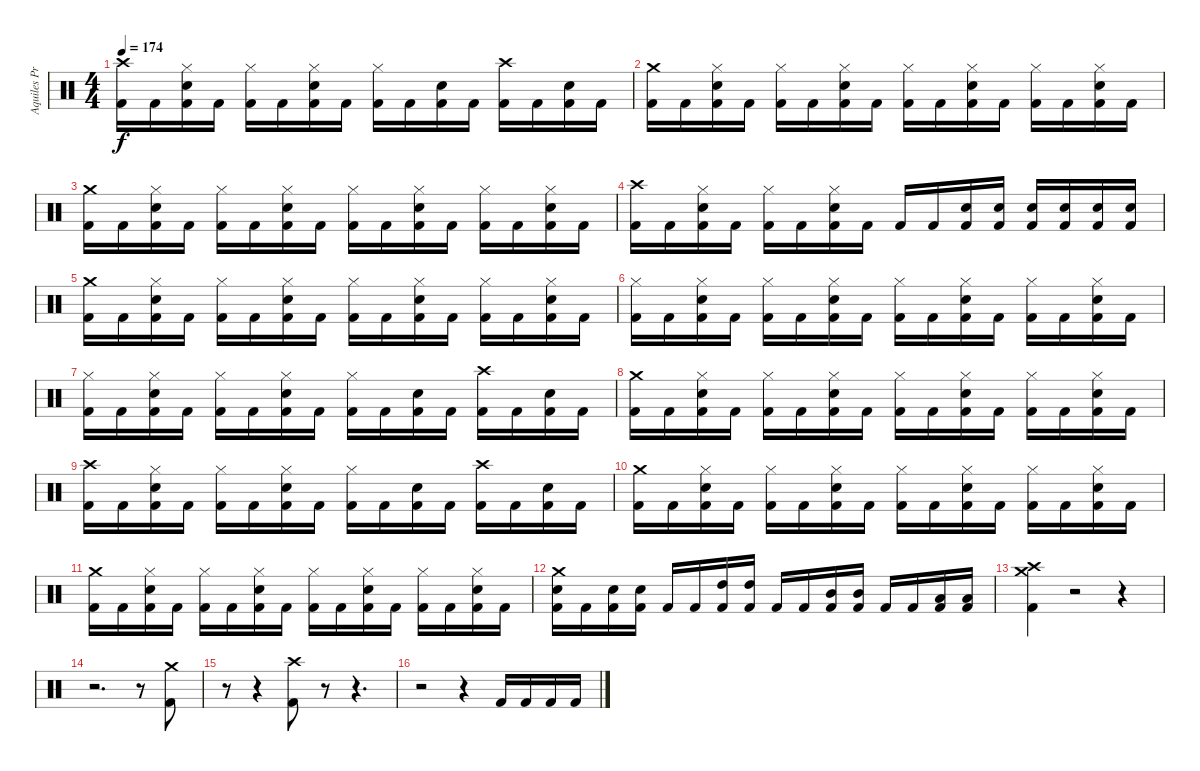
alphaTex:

\track ("Aquiles Priester" "Aquiles Pr") {instrument percussion}
\staff {score}
\articulation defaults
\ts (4 4)
\tempo 174
\clef neutral
\ks c
("Crash high (hit)" "Kick (hit) 2").16{dy f} "Kick (hit) 2".16 ("Hi-Hat (closed)" "Electric Snare (hit)" "Kick (hit) 2").16 "Kick (hit) 2".16 ("Hi-Hat (closed)" "Kick (hit) 2").16 "Kick (hit) 2".16 ("Hi-Hat (closed)" "Electric Snare (hit)" "Kick (hit) 2").16 "Kick (hit) 2".16 ("Hi-Hat (closed)" "Kick (hit) 2").16 "Kick (hit) 2".16 ("Electric Snare (hit)" "Kick (hit) 2").16 "Kick (hit) 2".16 ("Crash high (hit)" "Kick (hit) 2").16 "Kick (hit) 2".16 ("Electric Snare (hit)" "Kick (hit) 2").16 "Kick (hit) 2".16 |
("Crash medium (hit)" "Kick (hit) 2").16 "Kick (hit) 2".16 ("Hi-Hat (closed)" "Electric Snare (hit)" "Kick (hit) 2").16 "Kick (hit) 2".16 ("Hi-Hat (closed)" "Kick (hit) 2").16 "Kick (hit) 2".16 ("Hi-Hat (closed)" "Electric Snare (hit)" "Kick (hit) 2").16 "Kick (hit) 2".16 ("Hi-Hat (closed)" "Kick (hit) 2").16 "Kick (hit) 2".16 ("Hi-Hat (closed)" "Electric Snare (hit)" "Kick (hit) 2").16 "Kick (hit) 2".16 ("Hi-Hat (closed)" "Kick (hit) 2").16 "Kick (hit) 2".16 ("Hi-Hat (closed)" "Electric Snare (hit)" "Kick (hit) 2").16 "Kick (hit) 2".16 |
("Crash medium (hit)" "Kick (hit) 2").16 "Kick (hit) 2".16 ("Hi-Hat (closed)" "Electric Snare (hit)" "Kick (hit) 2").16 "Kick (hit) 2".16 ("Hi-Hat (closed)" "Kick (hit) 2").16 "Kick (hit) 2".16 ("Hi-Hat (closed)" "Electric Snare (hit)" "Kick (hit) 2").16 "Kick (hit) 2".16 ("Hi-Hat (closed)" "Kick (hit) 2").16 "Kick (hit) 2".16 ("Hi-Hat (closed)" "Electric Snare (hit)" "Kick (hit) 2").16 "Kick (hit) 2".16 ("Hi-Hat (closed)" "Kick (hit) 2").16 "Kick (hit) 2".16 ("Hi-Hat (closed)" "Electric Snare (hit)" "Kick (hit) 2").16 "Kick (hit) 2".16 |
("Crash high (hit)" "Kick (hit) 2").16 "Kick (hit) 2".16 ("Hi-Hat (closed)" "Electric Snare (hit)" "Kick (hit) 2").16 "Kick (hit) 2".16 ("Hi-Hat (closed)" "Kick (hit) 2").16 "Kick (hit) 2".16 ("Hi-Hat (closed)" "Electric Snare (hit)" "Kick (hit) 2").16 "Kick (hit) 2".16 "Kick (hit) 2".16 "Kick (hit) 2".16 ("Electric Snare (hit)" "Kick (hit) 2").16 ("Electric Snare (hit)" "Kick (hit) 2").16 ("Electric Snare (hit)" "Kick (hit) 2").16 ("Electric Snare (hit)" "Kick (hit) 2").16 ("Electric Snare (hit)" "Kick (hit) 2").16 ("Electric Snare (hit)" "Kick (hit) 2").16 |
("Crash medium (hit)" "Kick (hit) 2").16 "Kick (hit) 2".16 ("Hi-Hat (closed)" "Electric Snare (hit)" "Kick (hit) 2").16 "Kick (hit) 2".16 ("Hi-Hat (closed)" "Kick (hit) 2").16 "Kick (hit) 2".16 ("Hi-Hat (closed)" "Electric Snare (hit)" "Kick (hit) 2").16 "Kick (hit) 2".16 ("Hi-Hat (closed)" "Kick (hit) 2").16 "Kick (hit) 2".16 ("Hi-Hat (closed)" "Electric Snare (hit)" "Kick (hit) 2").16 "Kick (hit) 2".16 ("Hi-Hat (closed)" "Kick (hit) 2").16 "Kick (hit) 2".16 ("Hi-Hat (closed)" "Electric Snare (hit)" "Kick (hit) 2").16 "Kick (hit) 2".16 |
("Hi-Hat (closed)" "Kick (hit) 2").16 "Kick (hit) 2".16 ("Hi-Hat (closed)" "Electric Snare (hit)" "Kick (hit) 2").16 "Kick (hit) 2".16 ("Hi-Hat (closed)" "Kick (hit) 2").16 "Kick (hit) 2".16 ("Hi-Hat (closed)" "Electric Snare (hit)" "Kick (hit) 2").16 "Kick (hit) 2".16 ("Hi-Hat (closed)" "Kick (hit) 2").16 "Kick (hit) 2".16 ("Hi-Hat (closed)" "Electric Snare (hit)" "Kick (hit) 2").16 "Kick (hit) 2".16 ("Hi-Hat (closed)" "Kick (hit) 2").16 "Kick (hit) 2".16 ("Hi-Hat (closed)" "Electric Snare (hit)" "Kick (hit) 2").16 "Kick (hit) 2".16 |
("Hi-Hat (closed)" "Kick (hit) 2").16 "Kick (hit) 2".16 ("Hi-Hat (closed)" "Electric Snare (hit)" "Kick (hit) 2").16 "Kick (hit) 2".16 ("Hi-Hat (closed)" "Kick (hit) 2").16 "Kick (hit) 2".16 ("Hi-Hat (closed)" "Electric Snare (hit)" "Kick (hit) 2").16 "Kick (hit) 2".16 ("Hi-Hat (closed)" "Kick (hit) 2").16 "Kick (hit) 2".16 ("Electric Snare (hit)" "Kick (hit) 2").16 "Kick (hit) 2".16 ("Crash high (hit)" "Kick (hit) 2").16 "Kick (hit) 2".16 ("Electric Snare (hit)" "Kick (hit) 2").16 "Kick (hit) 2".16 |
("Crash medium (hit)" "Kick (hit) 2").16 "Kick (hit) 2".16 ("Hi-Hat (closed)" "Electric Snare (hit)" "Kick (hit) 2").16 "Kick (hit) 2".16 ("Hi-Hat (closed)" "Kick (hit) 2").16 "Kick (hit) 2".16 ("Hi-Hat (closed)" "Electric Snare (hit)" "Kick (hit) 2").16 "Kick (hit) 2".16 ("Hi-Hat (closed)" "Kick (hit) 2").16 "Kick (hit) 2".16 ("Hi-Hat (closed)" "Electric Snare (hit)" "Kick (hit) 2").16 "Kick (hit) 2".16 ("Hi-Hat (closed)" "Kick (hit) 2").16 "Kick (hit) 2".16 ("Hi-Hat (closed)" "Electric Snare (hit)" "Kick (hit) 2").16 "Kick (hit) 2".16 |
("Crash high (hit)" "Kick (hit) 2").16 "Kick (hit) 2".16 ("Hi-Hat (closed)" "Electric Snare (hit)" "Kick (hit) 2").16 "Kick (hit) 2".16 ("Hi-Hat (closed)" "Kick (hit) 2").16 "Kick (hit) 2".16 ("Hi-Hat (closed)" "Electric Snare (hit)" "Kick (hit) 2").16 "Kick (hit) 2".16 ("Hi-Hat (closed)" "Kick (hit) 2").16 "Kick (hit) 2".16 ("Electric Snare (hit)" "Kick (hit) 2").16 "Kick (hit) 2".16 ("Crash high (hit)" "Kick (hit) 2").16 "Kick (hit) 2".16 ("Electric Snare (hit)" "Kick (hit) 2").16 "Kick (hit) 2".16 |
("Crash medium (hit)" "Kick (hit) 2").16 "Kick (hit) 2".16 ("Hi-Hat (closed)" "Electric Snare (hit)" "Kick (hit) 2").16 "Kick (hit) 2".16 ("Hi-Hat (closed)" "Kick (hit) 2").16 "Kick (hit) 2".16 ("Hi-Hat (closed)" "Electric Snare (hit)" "Kick (hit) 2").16 "Kick (hit) 2".16 ("Hi-Hat (closed)" "Kick (hit) 2").16 "Kick (hit) 2".16 ("Hi-Hat (closed)" "Electric Snare (hit)" "Kick (hit) 2").16 "Kick (hit) 2".16 ("Hi-Hat (closed)" "Kick (hit) 2").16 "Kick (hit) 2".16 ("Hi-Hat (closed)" "Electric Snare (hit)" "Kick (hit) 2").16 "Kick (hit) 2".16 |
("Crash medium (hit)" "Kick (hit) 2").16 "Kick (hit) 2".16 ("Hi-Hat (closed)" "Electric Snare (hit)" "Kick (hit) 2").16 "Kick (hit) 2".16 ("Hi-Hat (closed)" "Kick (hit) 2").16 "Kick (hit) 2".16 ("Hi-Hat (closed)" "Electric Snare (hit)" "Kick (hit) 2").16 "Kick (hit) 2".16 ("Hi-Hat (closed)" "Kick (hit) 2").16 "Kick (hit) 2".16 ("Hi-Hat (closed)" "Electric Snare (hit)" "Kick (hit) 2").16 "Kick (hit) 2".16 ("Hi-Hat (closed)" "Kick (hit) 2").16 "Kick (hit) 2".16 ("Hi-Hat (closed)" "Electric Snare (hit)" "Kick (hit) 2").16 "Kick (hit) 2".16 |
("Crash medium (hit)" "Electric Snare (hit)" "Kick (hit) 2").16 "Kick (hit) 2".16 ("Electric Snare (hit)" "Kick (hit) 2").16 ("Electric Snare (hit)" "Kick (hit) 2").16 "Kick (hit) 2".16 "Kick (hit) 2".16 ("High Tom (hit)" "Kick (hit) 2").16 ("High Tom (hit)" "Kick (hit) 2").16 "Kick (hit) 2".16 "Kick (hit) 2".16 ("Mid Tom (hit)" "Kick (hit) 2").16 ("Mid Tom (hit)" "Kick (hit) 2").16 "Kick (hit) 2".16 "Kick (hit) 2".16 ("Low Tom (hit)" "Kick (hit) 2").16 ("Low Tom (hit)" "Kick (hit) 2").16 |
("Crash medium (hit)" "Crash high (hit)" "Kick (hit) 2").4 r.2 r.4 |
r.2{d} r.8 ("Crash medium (hit)" "Kick (hit) 2").8 |
r.8 r.4 ("Crash high (hit)" "Kick (hit) 2").8 r.8 r.4{d} |
r.2 r.4 "Kick (hit) 2".16 "Kick (hit) 2".16 "Kick (hit) 2".16 "Kick (hit) 2".16
